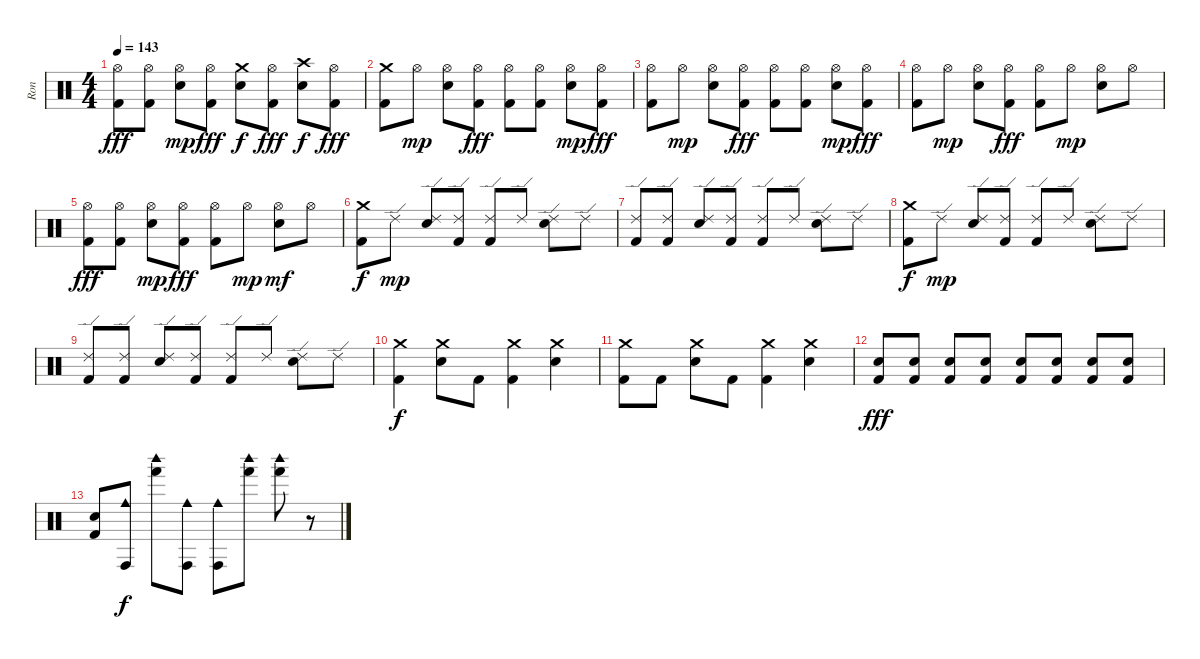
\track ("Ron" "Ron") {instrument percussion}
\staff {score}
\articulation defaults
\ts (4 4)
\tempo 143
\clef neutral
\ks c
("Hi-Hat (open)" "Kick (hit) 2").8{dy fff} ("Hi-Hat (open)" "Kick (hit) 2").8 ("Hi-Hat (open)" "Snare (hit) 2").8{dy mp} ("Hi-Hat (open)" "Kick (hit) 2").8{dy fff} ("Crash medium (hit)" "Snare (hit) 2").8{dy f} ("Hi-Hat (open)" "Kick (hit) 2").8{dy fff} ("Crash high (hit)" "Snare (hit) 2").8{dy f} ("Hi-Hat (open)" "Kick (hit) 2").8{dy fff} |
("Crash medium (hit)" "Kick (hit) 2").8 "Hi-Hat (open)".8{dy mp} ("Hi-Hat (open)" "Snare (hit) 2").8 ("Hi-Hat (open)" "Kick (hit) 2").8{dy fff} ("Hi-Hat (open)" "Kick (hit) 2").8 ("Hi-Hat (open)" "Kick (hit) 2").8 ("Hi-Hat (open)" "Snare (hit) 2").8{dy mp} ("Hi-Hat (open)" "Kick (hit) 2").8{dy fff} |
("Hi-Hat (open)" "Kick (hit) 2").8 "Hi-Hat (open)".8{dy mp} ("Hi-Hat (open)" "Snare (hit) 2").8 ("Hi-Hat (open)" "Kick (hit) 2").8{dy fff} ("Hi-Hat (open)" "Kick (hit) 2").8 ("Hi-Hat (open)" "Kick (hit) 2").8 ("Hi-Hat (open)" "Snare (hit) 2").8{dy mp} ("Hi-Hat (open)" "Kick (hit) 2").8{dy fff} |
("Hi-Hat (open)" "Kick (hit) 2").8 "Hi-Hat (open)".8{dy mp} ("Hi-Hat (open)" "Snare (hit) 2").8 ("Hi-Hat (open)" "Kick (hit) 2").8{dy fff} ("Hi-Hat (open)" "Kick (hit) 2").8 "Hi-Hat (open)".8{dy mp} ("Hi-Hat (open)" "Snare (hit) 2").8 "Hi-Hat (open)".8 |
("Hi-Hat (open)" "Kick (hit) 2").8{dy fff} ("Hi-Hat (open)" "Kick (hit) 2").8 ("Hi-Hat (open)" "Snare (hit) 2").8{dy mp} ("Hi-Hat (open)" "Kick (hit) 2").8{dy fff} ("Hi-Hat (open)" "Kick (hit) 2").8 "Hi-Hat (open)".8{dy mp} ("Hi-Hat (open)" "Snare (hit) 2").8{dy mf} "Hi-Hat (open)".8 |
("Crash medium (hit)" "Kick (hit) 2").8{dy f} "Ride (edge) 2".8{dy mp} ("Ride (edge) 2" "Snare (hit) 2").8 ("Ride (edge) 2" "Kick (hit) 2").8 ("Ride (edge) 2" "Kick (hit) 2").8 "Ride (edge) 2".8 ("Ride (edge) 2" "Snare (hit) 2").8 "Ride (edge) 2".8 |
("Ride (edge) 2" "Kick (hit) 2").8 ("Ride (edge) 2" "Kick (hit) 2").8 ("Ride (edge) 2" "Snare (hit) 2").8 ("Ride (edge) 2" "Kick (hit) 2").8 ("Ride (edge) 2" "Kick (hit) 2").8 "Ride (edge) 2".8 ("Ride (edge) 2" "Snare (hit) 2").8 "Ride (edge) 2".8 |
("Crash medium (hit)" "Kick (hit) 2").8{dy f} "Ride (edge) 2".8{dy mp} ("Ride (edge) 2" "Snare (hit) 2").8 ("Ride (edge) 2" "Kick (hit) 2").8 ("Ride (edge) 2" "Kick (hit) 2").8 "Ride (edge) 2".8 ("Ride (edge) 2" "Snare (hit) 2").8 "Ride (edge) 2".8 |
("Ride (edge) 2" "Kick (hit) 2").8 ("Ride (edge) 2" "Kick (hit) 2").8 ("Ride (edge) 2" "Snare (hit) 2").8 ("Ride (edge) 2" "Kick (hit) 2").8 ("Ride (edge) 2" "Kick (hit) 2").8 "Ride (edge) 2".8 ("Ride (edge) 2" "Snare (hit) 2").8 "Ride (edge) 2".8 |
("Crash medium (hit)" "Kick (hit) 2").4{dy f} ("Crash medium (hit)" "Snare (hit) 2").8 "Kick (hit) 2".8 ("Crash medium (hit)" "Kick (hit) 2").4 ("Crash medium (hit)" "Snare (hit) 2").4 |
("Crash medium (hit)" "Kick (hit) 2").8 "Kick (hit) 2".8 ("Crash medium (hit)" "Snare (hit) 2").8 "Kick (hit) 2".8 ("Crash medium (hit)" "Kick (hit) 2").4 ("Crash medium (hit)" "Snare (hit) 2").4 |
("Snare (hit) 2" "Kick (hit) 2").8{dy fff} ("Snare (hit) 2" "Kick (hit) 2").8 ("Snare (hit) 2" "Kick (hit) 2").8 ("Snare (hit) 2" "Kick (hit) 2").8 ("Snare (hit) 2" "Kick (hit) 2").8 ("Snare (hit) 2" "Kick (hit) 2").8 ("Snare (hit) 2" "Kick (hit) 2").8 ("Snare (hit) 2" "Kick (hit) 2").8 |
("Snare (hit) 2" "Kick (hit) 2").8 ("Conga high (hit)" "Cowbell medium (hit)").8{dy f volume 13} ("Hand (hit)" "Woodblock high (hit)").8 ("Conga high (hit)" "Cowbell medium (hit)").8 ("Conga high (hit)" "Cowbell medium (hit)").8 ("Hand (hit)" "Woodblock high (hit)").8 ("Hand (hit)" "Woodblock high (hit)").8 r.8
